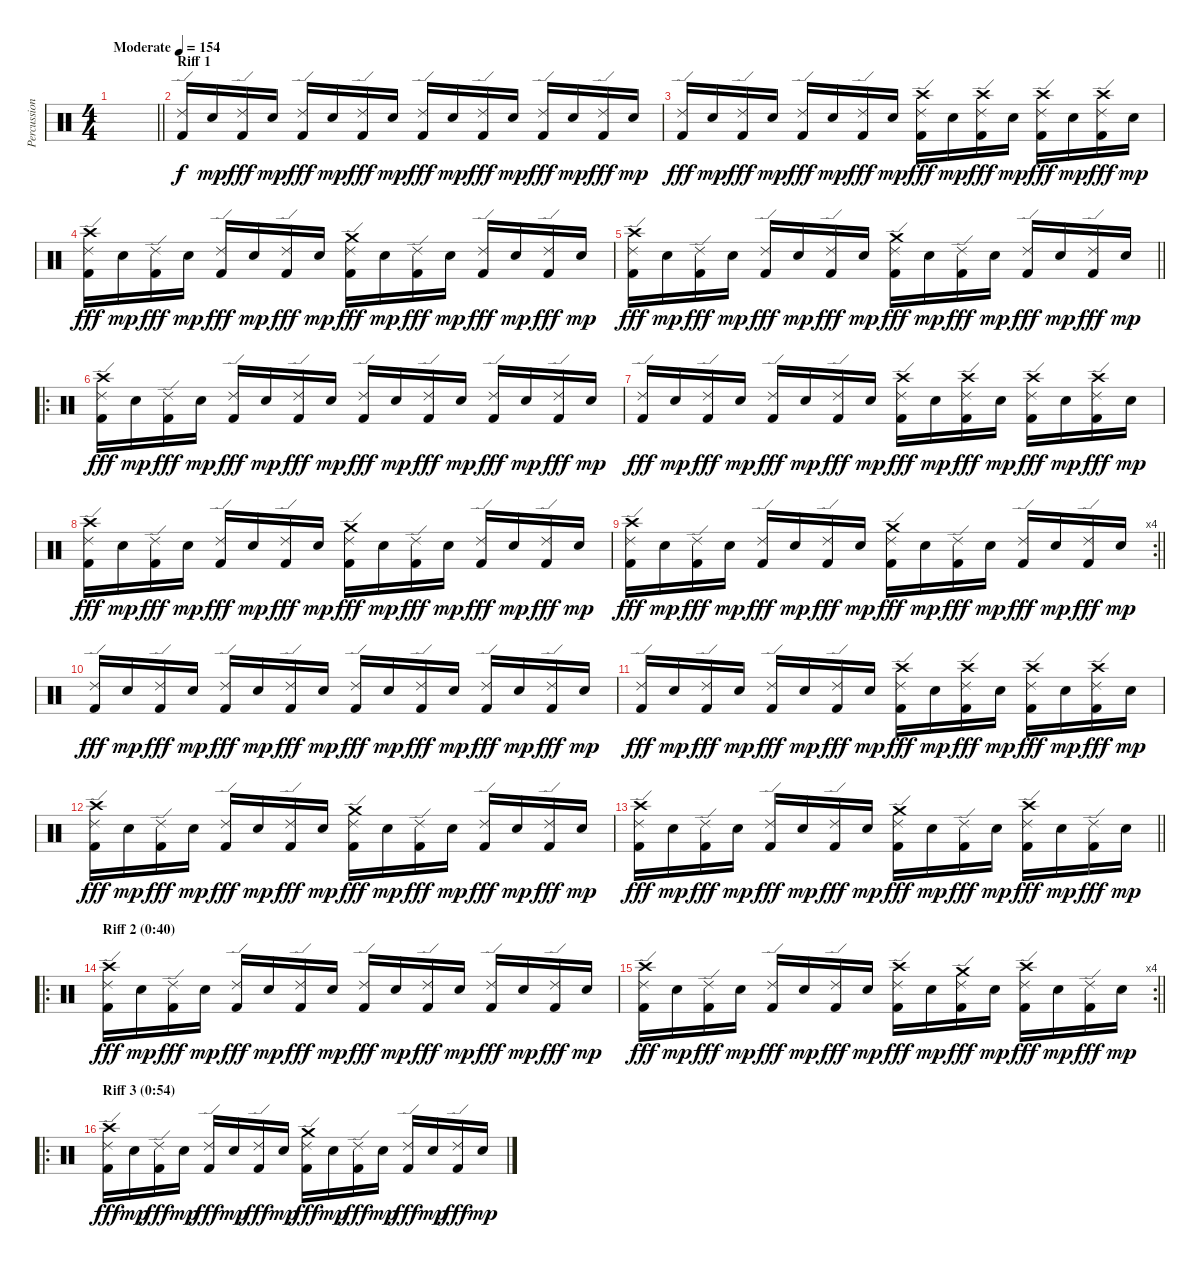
\track ("Percussion" "Percussion") {instrument percussion}
\staff {score}
\articulation defaults
\ts (4 4)
\tempo (154 "Moderate")
\clef neutral
\barLineRight lightlight
\ks c
|
\section ("" "Riff 1")
("Ride (edge) 2" "Kick (hit) 2").16 "Electric Snare (hit)".16{dy mp} ("Ride (edge) 2" "Kick (hit) 2").16{dy fff} "Electric Snare (hit)".16{dy mp} ("Ride (edge) 2" "Kick (hit) 2").16{dy fff} "Electric Snare (hit)".16{dy mp} ("Ride (edge) 2" "Kick (hit) 2").16{dy fff} "Electric Snare (hit)".16{dy mp} ("Ride (edge) 2" "Kick (hit) 2").16{dy fff} "Electric Snare (hit)".16{dy mp} ("Ride (edge) 2" "Kick (hit) 2").16{dy fff} "Electric Snare (hit)".16{dy mp} ("Ride (edge) 2" "Kick (hit) 2").16{dy fff} "Electric Snare (hit)".16{dy mp} ("Ride (edge) 2" "Kick (hit) 2").16{dy fff} "Electric Snare (hit)".16{dy mp} |
("Ride (edge) 2" "Kick (hit) 2").16{dy fff} "Electric Snare (hit)".16{dy mp} ("Ride (edge) 2" "Kick (hit) 2").16{dy fff} "Electric Snare (hit)".16{dy mp} ("Ride (edge) 2" "Kick (hit) 2").16{dy fff} "Electric Snare (hit)".16{dy mp} ("Ride (edge) 2" "Kick (hit) 2").16{dy fff} "Electric Snare (hit)".16{dy mp} ("Crash high (hit)" "Ride (edge) 2" "Kick (hit) 2").16{dy fff} "Electric Snare (hit)".16{dy mp} ("Crash high (hit)" "Ride (edge) 2" "Kick (hit) 2").16{dy fff} "Electric Snare (hit)".16{dy mp} ("Crash high (hit)" "Ride (edge) 2" "Kick (hit) 2").16{dy fff} "Electric Snare (hit)".16{dy mp} ("Crash high (hit)" "Ride (edge) 2" "Kick (hit) 2").16{dy fff} "Electric Snare (hit)".16{dy mp} |
("Crash high (hit)" "Ride (edge) 2" "Kick (hit) 2").16{dy fff} "Electric Snare (hit)".16{dy mp} ("Ride (edge) 2" "Kick (hit) 2").16{dy fff} "Electric Snare (hit)".16{dy mp} ("Ride (edge) 2" "Kick (hit) 2").16{dy fff} "Electric Snare (hit)".16{dy mp} ("Ride (edge) 2" "Kick (hit) 2").16{dy fff} "Electric Snare (hit)".16{dy mp} ("Crash medium (hit)" "Ride (edge) 2" "Kick (hit) 2").16{dy fff} "Electric Snare (hit)".16{dy mp} ("Ride (edge) 2" "Kick (hit) 2").16{dy fff} "Electric Snare (hit)".16{dy mp} ("Ride (edge) 2" "Kick (hit) 2").16{dy fff} "Electric Snare (hit)".16{dy mp} ("Ride (edge) 2" "Kick (hit) 2").16{dy fff} "Electric Snare (hit)".16{dy mp} |
\barLineRight lightlight
("Crash high (hit)" "Ride (edge) 2" "Kick (hit) 2").16{dy fff} "Electric Snare (hit)".16{dy mp} ("Ride (edge) 2" "Kick (hit) 2").16{dy fff} "Electric Snare (hit)".16{dy mp} ("Ride (edge) 2" "Kick (hit) 2").16{dy fff} "Electric Snare (hit)".16{dy mp} ("Ride (edge) 2" "Kick (hit) 2").16{dy fff} "Electric Snare (hit)".16{dy mp} ("Crash medium (hit)" "Ride (edge) 2" "Kick (hit) 2").16{dy fff} "Electric Snare (hit)".16{dy mp} ("Ride (edge) 2" "Kick (hit) 2").16{dy fff} "Electric Snare (hit)".16{dy mp} ("Ride (edge) 2" "Kick (hit) 2").16{dy fff} "Electric Snare (hit)".16{dy mp} ("Ride (edge) 2" "Kick (hit) 2").16{dy fff} "Electric Snare (hit)".16{dy mp} |
\ro
("Crash high (hit)" "Ride (edge) 2" "Kick (hit) 2").16{dy fff} "Electric Snare (hit)".16{dy mp} ("Ride (edge) 2" "Kick (hit) 2").16{dy fff} "Electric Snare (hit)".16{dy mp} ("Ride (edge) 2" "Kick (hit) 2").16{dy fff} "Electric Snare (hit)".16{dy mp} ("Ride (edge) 2" "Kick (hit) 2").16{dy fff} "Electric Snare (hit)".16{dy mp} ("Ride (edge) 2" "Kick (hit) 2").16{dy fff} "Electric Snare (hit)".16{dy mp} ("Ride (edge) 2" "Kick (hit) 2").16{dy fff} "Electric Snare (hit)".16{dy mp} ("Ride (edge) 2" "Kick (hit) 2").16{dy fff} "Electric Snare (hit)".16{dy mp} ("Ride (edge) 2" "Kick (hit) 2").16{dy fff} "Electric Snare (hit)".16{dy mp} |
("Ride (edge) 2" "Kick (hit) 2").16{dy fff} "Electric Snare (hit)".16{dy mp} ("Ride (edge) 2" "Kick (hit) 2").16{dy fff} "Electric Snare (hit)".16{dy mp} ("Ride (edge) 2" "Kick (hit) 2").16{dy fff} "Electric Snare (hit)".16{dy mp} ("Ride (edge) 2" "Kick (hit) 2").16{dy fff} "Electric Snare (hit)".16{dy mp} ("Crash high (hit)" "Ride (edge) 2" "Kick (hit) 2").16{dy fff} "Electric Snare (hit)".16{dy mp} ("Crash high (hit)" "Ride (edge) 2" "Kick (hit) 2").16{dy fff} "Electric Snare (hit)".16{dy mp} ("Crash high (hit)" "Ride (edge) 2" "Kick (hit) 2").16{dy fff} "Electric Snare (hit)".16{dy mp} ("Crash high (hit)" "Ride (edge) 2" "Kick (hit) 2").16{dy fff} "Electric Snare (hit)".16{dy mp} |
("Crash high (hit)" "Ride (edge) 2" "Kick (hit) 2").16{dy fff} "Electric Snare (hit)".16{dy mp} ("Ride (edge) 2" "Kick (hit) 2").16{dy fff} "Electric Snare (hit)".16{dy mp} ("Ride (edge) 2" "Kick (hit) 2").16{dy fff} "Electric Snare (hit)".16{dy mp} ("Ride (edge) 2" "Kick (hit) 2").16{dy fff} "Electric Snare (hit)".16{dy mp} ("Crash medium (hit)" "Ride (edge) 2" "Kick (hit) 2").16{dy fff} "Electric Snare (hit)".16{dy mp} ("Ride (edge) 2" "Kick (hit) 2").16{dy fff} "Electric Snare (hit)".16{dy mp} ("Ride (edge) 2" "Kick (hit) 2").16{dy fff} "Electric Snare (hit)".16{dy mp} ("Ride (edge) 2" "Kick (hit) 2").16{dy fff} "Electric Snare (hit)".16{dy mp} |
\rc 4
\barLineRight lightlight
("Crash high (hit)" "Ride (edge) 2" "Kick (hit) 2").16{dy fff} "Electric Snare (hit)".16{dy mp} ("Ride (edge) 2" "Kick (hit) 2").16{dy fff} "Electric Snare (hit)".16{dy mp} ("Ride (edge) 2" "Kick (hit) 2").16{dy fff} "Electric Snare (hit)".16{dy mp} ("Ride (edge) 2" "Kick (hit) 2").16{dy fff} "Electric Snare (hit)".16{dy mp} ("Crash medium (hit)" "Ride (edge) 2" "Kick (hit) 2").16{dy fff} "Electric Snare (hit)".16{dy mp} ("Ride (edge) 2" "Kick (hit) 2").16{dy fff} "Electric Snare (hit)".16{dy mp} ("Ride (edge) 2" "Kick (hit) 2").16{dy fff} "Electric Snare (hit)".16{dy mp} ("Ride (edge) 2" "Kick (hit) 2").16{dy fff} "Electric Snare (hit)".16{dy mp} |
("Ride (edge) 2" "Kick (hit) 2").16{dy fff} "Electric Snare (hit)".16{dy mp} ("Ride (edge) 2" "Kick (hit) 2").16{dy fff} "Electric Snare (hit)".16{dy mp} ("Ride (edge) 2" "Kick (hit) 2").16{dy fff} "Electric Snare (hit)".16{dy mp} ("Ride (edge) 2" "Kick (hit) 2").16{dy fff} "Electric Snare (hit)".16{dy mp} ("Ride (edge) 2" "Kick (hit) 2").16{dy fff} "Electric Snare (hit)".16{dy mp} ("Ride (edge) 2" "Kick (hit) 2").16{dy fff} "Electric Snare (hit)".16{dy mp} ("Ride (edge) 2" "Kick (hit) 2").16{dy fff} "Electric Snare (hit)".16{dy mp} ("Ride (edge) 2" "Kick (hit) 2").16{dy fff} "Electric Snare (hit)".16{dy mp} |
("Ride (edge) 2" "Kick (hit) 2").16{dy fff} "Electric Snare (hit)".16{dy mp} ("Ride (edge) 2" "Kick (hit) 2").16{dy fff} "Electric Snare (hit)".16{dy mp} ("Ride (edge) 2" "Kick (hit) 2").16{dy fff} "Electric Snare (hit)".16{dy mp} ("Ride (edge) 2" "Kick (hit) 2").16{dy fff} "Electric Snare (hit)".16{dy mp} ("Crash high (hit)" "Ride (edge) 2" "Kick (hit) 2").16{dy fff} "Electric Snare (hit)".16{dy mp} ("Crash high (hit)" "Ride (edge) 2" "Kick (hit) 2").16{dy fff} "Electric Snare (hit)".16{dy mp} ("Crash high (hit)" "Ride (edge) 2" "Kick (hit) 2").16{dy fff} "Electric Snare (hit)".16{dy mp} ("Crash high (hit)" "Ride (edge) 2" "Kick (hit) 2").16{dy fff} "Electric Snare (hit)".16{dy mp} |
("Crash high (hit)" "Ride (edge) 2" "Kick (hit) 2").16{dy fff} "Electric Snare (hit)".16{dy mp} ("Ride (edge) 2" "Kick (hit) 2").16{dy fff} "Electric Snare (hit)".16{dy mp} ("Ride (edge) 2" "Kick (hit) 2").16{dy fff} "Electric Snare (hit)".16{dy mp} ("Ride (edge) 2" "Kick (hit) 2").16{dy fff} "Electric Snare (hit)".16{dy mp} ("Crash medium (hit)" "Ride (edge) 2" "Kick (hit) 2").16{dy fff} "Electric Snare (hit)".16{dy mp} ("Ride (edge) 2" "Kick (hit) 2").16{dy fff} "Electric Snare (hit)".16{dy mp} ("Ride (edge) 2" "Kick (hit) 2").16{dy fff} "Electric Snare (hit)".16{dy mp} ("Ride (edge) 2" "Kick (hit) 2").16{dy fff} "Electric Snare (hit)".16{dy mp} |
\barLineRight lightlight
("Crash high (hit)" "Ride (edge) 2" "Kick (hit) 2").16{dy fff} "Electric Snare (hit)".16{dy mp} ("Ride (edge) 2" "Kick (hit) 2").16{dy fff} "Electric Snare (hit)".16{dy mp} ("Ride (edge) 2" "Kick (hit) 2").16{dy fff} "Electric Snare (hit)".16{dy mp} ("Ride (edge) 2" "Kick (hit) 2").16{dy fff} "Electric Snare (hit)".16{dy mp} ("Crash medium (hit)" "Ride (edge) 2" "Kick (hit) 2").16{dy fff} "Electric Snare (hit)".16{dy mp} ("Ride (edge) 2" "Kick (hit) 2").16{dy fff} "Electric Snare (hit)".16{dy mp} ("Crash high (hit)" "Ride (edge) 2" "Kick (hit) 2").16{dy fff} "Electric Snare (hit)".16{dy mp} ("Ride (edge) 2" "Kick (hit) 2").16{dy fff} "Electric Snare (hit)".16{dy mp} |
\ro
\section ("" "Riff 2 (0:40)")
("Crash high (hit)" "Ride (edge) 2" "Kick (hit) 2").16{dy fff} "Electric Snare (hit)".16{dy mp} ("Ride (edge) 2" "Kick (hit) 2").16{dy fff} "Electric Snare (hit)".16{dy mp} ("Ride (edge) 2" "Kick (hit) 2").16{dy fff} "Electric Snare (hit)".16{dy mp} ("Ride (edge) 2" "Kick (hit) 2").16{dy fff} "Electric Snare (hit)".16{dy mp} ("Ride (edge) 2" "Kick (hit) 2").16{dy fff} "Electric Snare (hit)".16{dy mp} ("Ride (edge) 2" "Kick (hit) 2").16{dy fff} "Electric Snare (hit)".16{dy mp} ("Ride (edge) 2" "Kick (hit) 2").16{dy fff} "Electric Snare (hit)".16{dy mp} ("Ride (edge) 2" "Kick (hit) 2").16{dy fff} "Electric Snare (hit)".16{dy mp} |
\rc 4
\barLineRight lightlight
("Crash high (hit)" "Ride (edge) 2" "Kick (hit) 2").16{dy fff} "Electric Snare (hit)".16{dy mp} ("Ride (edge) 2" "Kick (hit) 2").16{dy fff} "Electric Snare (hit)".16{dy mp} ("Ride (edge) 2" "Kick (hit) 2").16{dy fff} "Electric Snare (hit)".16{dy mp} ("Ride (edge) 2" "Kick (hit) 2").16{dy fff} "Electric Snare (hit)".16{dy mp} ("Crash high (hit)" "Ride (edge) 2" "Kick (hit) 2").16{dy fff} "Electric Snare (hit)".16{dy mp} ("Crash medium (hit)" "Ride (edge) 2" "Kick (hit) 2").16{dy fff} "Electric Snare (hit)".16{dy mp} ("Crash high (hit)" "Ride (edge) 2" "Kick (hit) 2").16{dy fff} "Electric Snare (hit)".16{dy mp} ("Ride (edge) 2" "Kick (hit) 2").16{dy fff} "Electric Snare (hit)".16{dy mp} |
\ro
\section ("" "Riff 3 (0:54)")
("Crash high (hit)" "Ride (edge) 2" "Kick (hit) 2").16{dy fff} "Electric Snare (hit)".16{dy mp} ("Ride (edge) 2" "Kick (hit) 2").16{dy fff} "Electric Snare (hit)".16{dy mp} ("Ride (edge) 2" "Kick (hit) 2").16{dy fff} "Electric Snare (hit)".16{dy mp} ("Ride (edge) 2" "Kick (hit) 2").16{dy fff} "Electric Snare (hit)".16{dy mp} ("Crash medium (hit)" "Ride (edge) 2" "Kick (hit) 2").16{dy fff} "Electric Snare (hit)".16{dy mp} ("Ride (edge) 2" "Kick (hit) 2").16{dy fff} "Electric Snare (hit)".16{dy mp} ("Ride (edge) 2" "Kick (hit) 2").16{dy fff} "Electric Snare (hit)".16{dy mp} ("Ride (edge) 2" "Kick (hit) 2").16{dy fff} "Electric Snare (hit)".16{dy mp}
